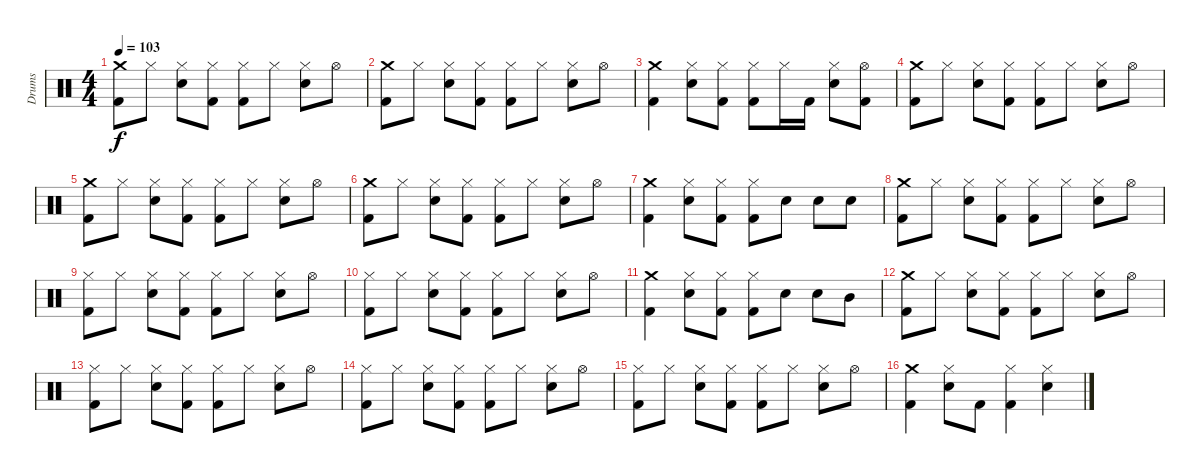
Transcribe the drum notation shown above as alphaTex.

\track ("Drums" "Drums") {instrument percussion}
\staff {score}
\articulation defaults
\ts (4 4)
\tempo 103
\clef neutral
\ks c
("Crash medium (hit)" "Kick (hit) 2").8{dy f} "Hi-Hat (closed)".8 ("Hi-Hat (closed)" "Electric Snare (hit)").8 ("Hi-Hat (closed)" "Kick (hit) 2").8 ("Hi-Hat (closed)" "Kick (hit) 2").8 "Hi-Hat (closed)".8 ("Hi-Hat (closed)" "Electric Snare (hit)").8 "Hi-Hat (open)".8 |
("Crash medium (hit)" "Kick (hit) 2").8 "Hi-Hat (closed)".8 ("Hi-Hat (closed)" "Electric Snare (hit)").8 ("Hi-Hat (closed)" "Kick (hit) 2").8 ("Hi-Hat (closed)" "Kick (hit) 2").8 "Hi-Hat (closed)".8 ("Hi-Hat (closed)" "Electric Snare (hit)").8 "Hi-Hat (open)".8 |
("Crash medium (hit)" "Kick (hit) 2").4 ("Hi-Hat (closed)" "Electric Snare (hit)").8 ("Hi-Hat (closed)" "Kick (hit) 2").8 ("Hi-Hat (closed)" "Kick (hit) 2").8 "Hi-Hat (closed)".16 "Kick (hit) 2".16 ("Hi-Hat (closed)" "Electric Snare (hit)").8 ("Hi-Hat (open)" "Kick (hit) 2").8 |
("Crash medium (hit)" "Kick (hit) 2").8 "Hi-Hat (closed)".8 ("Hi-Hat (closed)" "Electric Snare (hit)").8 ("Hi-Hat (closed)" "Kick (hit) 2").8 ("Hi-Hat (closed)" "Kick (hit) 2").8 "Hi-Hat (closed)".8 ("Hi-Hat (closed)" "Electric Snare (hit)").8 "Hi-Hat (open)".8 |
("Crash medium (hit)" "Kick (hit) 2").8 "Hi-Hat (closed)".8 ("Hi-Hat (closed)" "Electric Snare (hit)").8 ("Hi-Hat (closed)" "Kick (hit) 2").8 ("Hi-Hat (closed)" "Kick (hit) 2").8 "Hi-Hat (closed)".8 ("Hi-Hat (closed)" "Electric Snare (hit)").8 "Hi-Hat (open)".8 |
("Crash medium (hit)" "Kick (hit) 2").8 "Hi-Hat (closed)".8 ("Hi-Hat (closed)" "Electric Snare (hit)").8 ("Hi-Hat (closed)" "Kick (hit) 2").8 ("Hi-Hat (closed)" "Kick (hit) 2").8 "Hi-Hat (closed)".8 ("Hi-Hat (closed)" "Electric Snare (hit)").8 "Hi-Hat (open)".8 |
("Crash medium (hit)" "Kick (hit) 2").4 ("Hi-Hat (closed)" "Electric Snare (hit)").8 ("Hi-Hat (closed)" "Kick (hit) 2").8 ("Hi-Hat (closed)" "Kick (hit) 2").8 "Electric Snare (hit)".8 "Electric Snare (hit)".8 "Electric Snare (hit)".8 |
("Crash medium (hit)" "Kick (hit) 2").8 "Hi-Hat (closed)".8 ("Hi-Hat (closed)" "Electric Snare (hit)").8 ("Hi-Hat (closed)" "Kick (hit) 2").8 ("Hi-Hat (closed)" "Kick (hit) 2").8 "Hi-Hat (closed)".8 ("Hi-Hat (closed)" "Electric Snare (hit)").8 "Hi-Hat (open)".8 |
("Hi-Hat (closed)" "Kick (hit) 2").8 "Hi-Hat (closed)".8 ("Hi-Hat (closed)" "Electric Snare (hit)").8 ("Hi-Hat (closed)" "Kick (hit) 2").8 ("Hi-Hat (closed)" "Kick (hit) 2").8 "Hi-Hat (closed)".8 ("Hi-Hat (closed)" "Electric Snare (hit)").8 "Hi-Hat (open)".8 |
("Hi-Hat (closed)" "Kick (hit) 2").8 "Hi-Hat (closed)".8 ("Hi-Hat (closed)" "Electric Snare (hit)").8 ("Hi-Hat (closed)" "Kick (hit) 2").8 ("Hi-Hat (closed)" "Kick (hit) 2").8 "Hi-Hat (closed)".8 ("Hi-Hat (closed)" "Electric Snare (hit)").8 "Hi-Hat (open)".8 |
("Crash medium (hit)" "Kick (hit) 2").4 ("Hi-Hat (closed)" "Electric Snare (hit)").8 ("Hi-Hat (closed)" "Kick (hit) 2").8 ("Hi-Hat (closed)" "Kick (hit) 2").8 "Electric Snare (hit)".8 "Electric Snare (hit)".8 "Mid Tom (hit)".8 |
("Crash medium (hit)" "Kick (hit) 2").8 "Hi-Hat (closed)".8 ("Hi-Hat (closed)" "Electric Snare (hit)").8 ("Hi-Hat (closed)" "Kick (hit) 2").8 ("Hi-Hat (closed)" "Kick (hit) 2").8 "Hi-Hat (closed)".8 ("Hi-Hat (closed)" "Electric Snare (hit)").8 "Hi-Hat (open)".8 |
("Hi-Hat (closed)" "Kick (hit) 2").8 "Hi-Hat (closed)".8 ("Hi-Hat (closed)" "Electric Snare (hit)").8 ("Hi-Hat (closed)" "Kick (hit) 2").8 ("Hi-Hat (closed)" "Kick (hit) 2").8 "Hi-Hat (closed)".8 ("Hi-Hat (closed)" "Electric Snare (hit)").8 "Hi-Hat (open)".8 |
("Hi-Hat (closed)" "Kick (hit) 2").8 "Hi-Hat (closed)".8 ("Hi-Hat (closed)" "Electric Snare (hit)").8 ("Hi-Hat (closed)" "Kick (hit) 2").8 ("Hi-Hat (closed)" "Kick (hit) 2").8 "Hi-Hat (closed)".8 ("Hi-Hat (closed)" "Electric Snare (hit)").8 "Hi-Hat (open)".8 |
("Hi-Hat (closed)" "Kick (hit) 2").8 "Hi-Hat (closed)".8 ("Hi-Hat (closed)" "Electric Snare (hit)").8 ("Hi-Hat (closed)" "Kick (hit) 2").8 ("Hi-Hat (closed)" "Kick (hit) 2").8 "Hi-Hat (closed)".8 ("Hi-Hat (closed)" "Electric Snare (hit)").8 "Hi-Hat (open)".8 |
("Crash medium (hit)" "Kick (hit) 2").4 ("Hi-Hat (closed)" "Electric Snare (hit)").8 "Kick (hit) 2".8 ("Hi-Hat (closed)" "Kick (hit) 2").4 ("Hi-Hat (closed)" "Electric Snare (hit)").4
